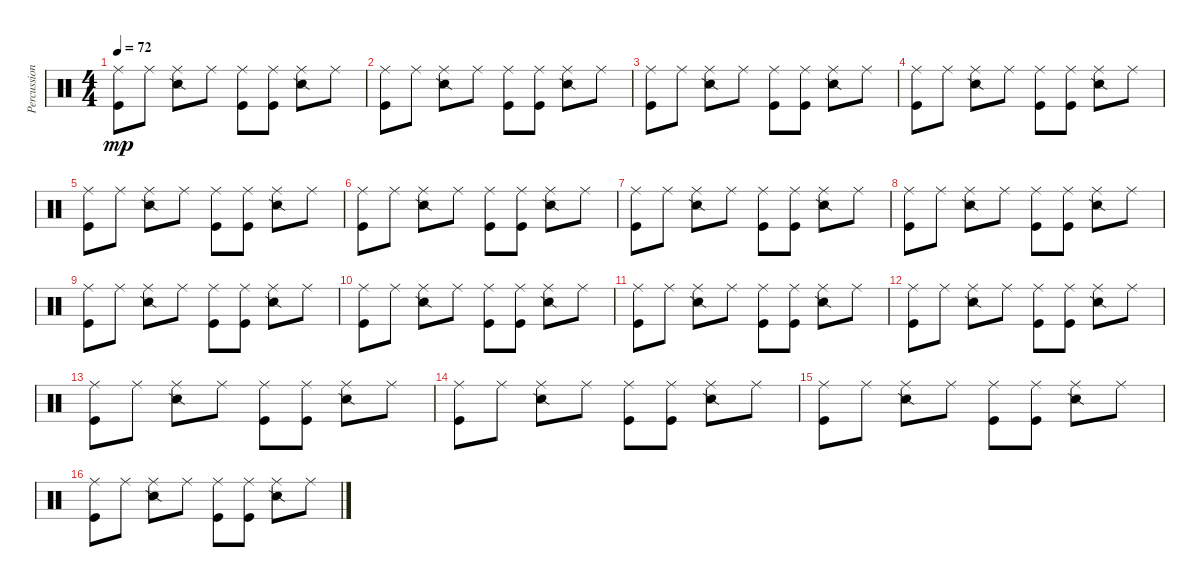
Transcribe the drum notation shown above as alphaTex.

\track ("Percussion" "Percussion") {instrument percussion}
\staff {score}
\articulation defaults
\ts (4 4)
\tempo 72
\clef neutral
\ks c
("Ride (middle)" "Kick (hit)").8{dy mp} "Ride (middle)".8 ("Ride (middle)" "Snare (side stick) 2").8 "Ride (middle)".8 ("Ride (middle)" "Kick (hit)").8 ("Ride (middle)" "Kick (hit)").8 ("Ride (middle)" "Snare (side stick) 2").8 "Ride (middle)".8 |
("Ride (middle)" "Kick (hit)").8 "Ride (middle)".8 ("Ride (middle)" "Snare (side stick) 2").8 "Ride (middle)".8 ("Ride (middle)" "Kick (hit)").8 ("Ride (middle)" "Kick (hit)").8 ("Ride (middle)" "Snare (side stick) 2").8 "Ride (middle)".8 |
("Ride (middle)" "Kick (hit)").8 "Ride (middle)".8 ("Ride (middle)" "Snare (side stick) 2").8 "Ride (middle)".8 ("Ride (middle)" "Kick (hit)").8 ("Ride (middle)" "Kick (hit)").8 ("Ride (middle)" "Snare (side stick) 2").8 "Ride (middle)".8 |
("Ride (middle)" "Kick (hit)").8 "Ride (middle)".8 ("Ride (middle)" "Snare (side stick) 2").8 "Ride (middle)".8 ("Ride (middle)" "Kick (hit)").8 ("Ride (middle)" "Kick (hit)").8 ("Ride (middle)" "Snare (side stick) 2").8 "Ride (middle)".8 |
("Ride (middle)" "Kick (hit)").8 "Ride (middle)".8 ("Ride (middle)" "Snare (side stick) 2").8 "Ride (middle)".8 ("Ride (middle)" "Kick (hit)").8 ("Ride (middle)" "Kick (hit)").8 ("Ride (middle)" "Snare (side stick) 2").8 "Ride (middle)".8 |
("Ride (middle)" "Kick (hit)").8 "Ride (middle)".8 ("Ride (middle)" "Snare (side stick) 2").8 "Ride (middle)".8 ("Ride (middle)" "Kick (hit)").8 ("Ride (middle)" "Kick (hit)").8 ("Ride (middle)" "Snare (side stick) 2").8 "Ride (middle)".8 |
("Ride (middle)" "Kick (hit)").8 "Ride (middle)".8 ("Ride (middle)" "Snare (side stick) 2").8 "Ride (middle)".8 ("Ride (middle)" "Kick (hit)").8 ("Ride (middle)" "Kick (hit)").8 ("Ride (middle)" "Snare (side stick) 2").8 "Ride (middle)".8 |
("Ride (middle)" "Kick (hit)").8 "Ride (middle)".8 ("Ride (middle)" "Snare (side stick) 2").8 "Ride (middle)".8 ("Ride (middle)" "Kick (hit)").8 ("Ride (middle)" "Kick (hit)").8 ("Ride (middle)" "Snare (side stick) 2").8 "Ride (middle)".8 |
("Ride (middle)" "Kick (hit)").8 "Ride (middle)".8 ("Ride (middle)" "Snare (side stick) 2").8 "Ride (middle)".8 ("Ride (middle)" "Kick (hit)").8 ("Ride (middle)" "Kick (hit)").8 ("Ride (middle)" "Snare (side stick) 2").8 "Ride (middle)".8 |
("Ride (middle)" "Kick (hit)").8 "Ride (middle)".8 ("Ride (middle)" "Snare (side stick) 2").8 "Ride (middle)".8 ("Ride (middle)" "Kick (hit)").8 ("Ride (middle)" "Kick (hit)").8 ("Ride (middle)" "Snare (side stick) 2").8 "Ride (middle)".8 |
("Ride (middle)" "Kick (hit)").8 "Ride (middle)".8 ("Ride (middle)" "Snare (side stick) 2").8 "Ride (middle)".8 ("Ride (middle)" "Kick (hit)").8 ("Ride (middle)" "Kick (hit)").8 ("Ride (middle)" "Snare (side stick) 2").8 "Ride (middle)".8 |
("Ride (middle)" "Kick (hit)").8 "Ride (middle)".8 ("Ride (middle)" "Snare (side stick) 2").8 "Ride (middle)".8 ("Ride (middle)" "Kick (hit)").8 ("Ride (middle)" "Kick (hit)").8 ("Ride (middle)" "Snare (side stick) 2").8 "Ride (middle)".8 |
("Ride (middle)" "Kick (hit)").8 "Ride (middle)".8 ("Ride (middle)" "Snare (side stick) 2").8 "Ride (middle)".8 ("Ride (middle)" "Kick (hit)").8 ("Ride (middle)" "Kick (hit)").8 ("Ride (middle)" "Snare (side stick) 2").8 "Ride (middle)".8 |
("Ride (middle)" "Kick (hit)").8 "Ride (middle)".8 ("Ride (middle)" "Snare (side stick) 2").8 "Ride (middle)".8 ("Ride (middle)" "Kick (hit)").8 ("Ride (middle)" "Kick (hit)").8 ("Ride (middle)" "Snare (side stick) 2").8 "Ride (middle)".8 |
("Ride (middle)" "Kick (hit)").8 "Ride (middle)".8 ("Ride (middle)" "Snare (side stick) 2").8 "Ride (middle)".8 ("Ride (middle)" "Kick (hit)").8 ("Ride (middle)" "Kick (hit)").8 ("Ride (middle)" "Snare (side stick) 2").8 "Ride (middle)".8 |
("Ride (middle)" "Kick (hit)").8 "Ride (middle)".8 ("Ride (middle)" "Snare (side stick) 2").8 "Ride (middle)".8 ("Ride (middle)" "Kick (hit)").8 ("Ride (middle)" "Kick (hit)").8 ("Ride (middle)" "Snare (side stick) 2").8 "Ride (middle)".8
